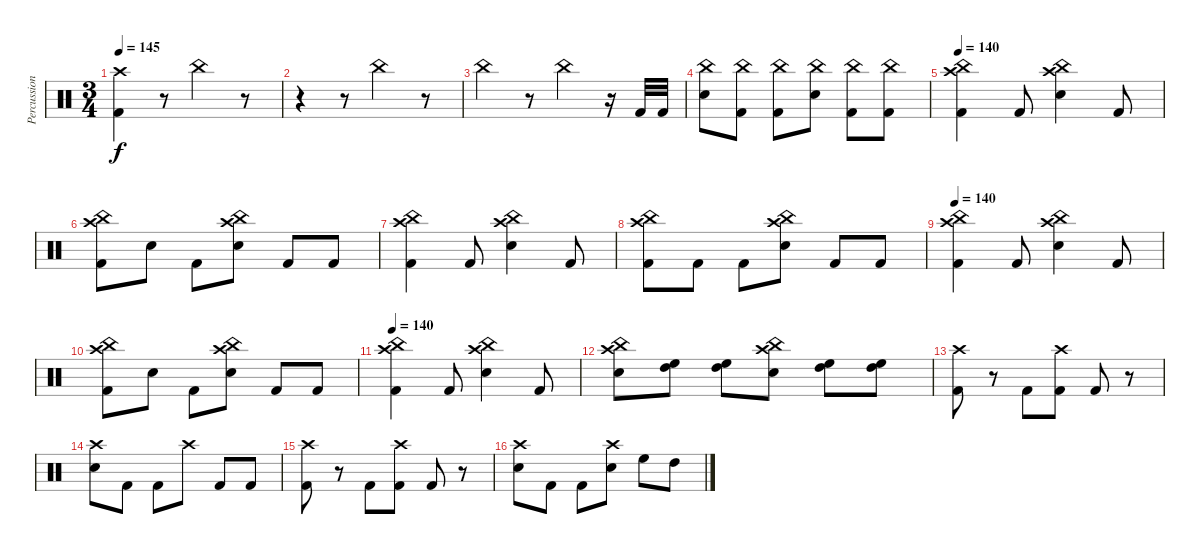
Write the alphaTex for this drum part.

\track ("Percussion" "Percussion") {instrument percussion}
\staff {score}
\articulation defaults
\ts (3 4)
\tempo 145
\clef neutral
\ks c
("Crash high (hit)" "Kick (hit) 2").4{dy f} r.8 "China (hit)".4 r.8 |
r.4 r.8 "China (hit)".4 r.8 |
"China (hit)".4 r.8 "China (hit)".4 r.16 "Kick (hit) 2".32 "Kick (hit) 2".32 |
("China (hit)" "Electric Snare (hit)").8 ("China (hit)" "Kick (hit) 2").8 ("China (hit)" "Kick (hit) 2").8 ("China (hit)" "Electric Snare (hit)").8 ("China (hit)" "Kick (hit) 2").8 ("China (hit)" "Kick (hit) 2").8 |
\tempo 140
("Crash high (hit)" "China (hit)" "Kick (hit) 2").4 "Kick (hit) 2".8 ("Crash high (hit)" "China (hit)" "Electric Snare (hit)").4 "Kick (hit) 2".8 |
("Crash high (hit)" "China (hit)" "Kick (hit) 2").8 "Electric Snare (hit)".8 "Kick (hit) 2".8 ("Crash high (hit)" "China (hit)" "Electric Snare (hit)").8 "Kick (hit) 2".8 "Kick (hit) 2".8 |
("Crash high (hit)" "China (hit)" "Kick (hit) 2").4 "Kick (hit) 2".8 ("Crash high (hit)" "China (hit)" "Electric Snare (hit)").4 "Kick (hit) 2".8 |
("Crash high (hit)" "China (hit)" "Kick (hit) 2").8 "Kick (hit) 2".8 "Kick (hit) 2".8 ("Crash high (hit)" "China (hit)" "Electric Snare (hit)").8 "Kick (hit) 2".8 "Kick (hit) 2".8 |
\tempo 140
("Crash high (hit)" "China (hit)" "Kick (hit) 2").4 "Kick (hit) 2".8 ("Crash high (hit)" "China (hit)" "Electric Snare (hit)").4 "Kick (hit) 2".8 |
("Crash high (hit)" "China (hit)" "Kick (hit) 2").8 "Electric Snare (hit)".8 "Kick (hit) 2".8 ("Crash high (hit)" "China (hit)" "Electric Snare (hit)").8 "Kick (hit) 2".8 "Kick (hit) 2".8 |
\tempo 140
("Crash high (hit)" "China (hit)" "Kick (hit) 2").4 "Kick (hit) 2".8 ("Crash high (hit)" "China (hit)" "Electric Snare (hit)").4 "Kick (hit) 2".8 |
("Crash high (hit)" "China (hit)" "Electric Snare (hit)").8 ("High Floor Tom (hit)" "High Tom (hit)").8 ("High Floor Tom (hit)" "High Tom (hit)").8 ("Crash high (hit)" "China (hit)" "Electric Snare (hit)").8 ("High Floor Tom (hit)" "High Tom (hit)").8 ("High Floor Tom (hit)" "High Tom (hit)").8 |
("Crash high (hit)" "Kick (hit) 2").8 r.8 "Kick (hit) 2".8 ("Crash high (hit)" "Kick (hit) 2").8 "Kick (hit) 2".8 r.8 |
("Crash high (hit)" "Electric Snare (hit)").8 "Kick (hit) 2".8 "Kick (hit) 2".8 "Crash high (hit)".8 "Kick (hit) 2".8 "Kick (hit) 2".8 |
("Crash high (hit)" "Kick (hit) 2").8 r.8 "Kick (hit) 2".8 ("Crash high (hit)" "Kick (hit) 2").8 "Kick (hit) 2".8 r.8 |
("Crash high (hit)" "Electric Snare (hit)").8 "Kick (hit) 2".8 "Kick (hit) 2".8 ("Crash high (hit)" "Electric Snare (hit)").8 "High Floor Tom (hit)".8 "High Tom (hit)".8
